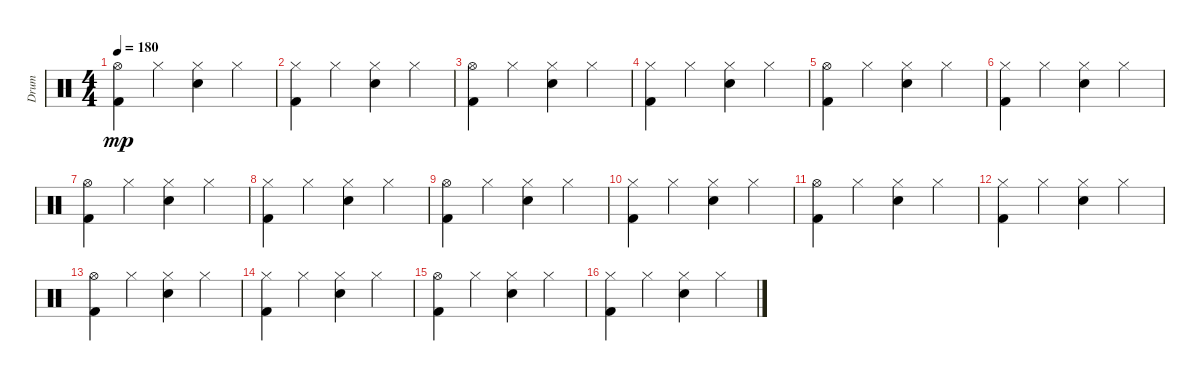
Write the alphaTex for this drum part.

\track ("Drum" "Drum") {instrument percussion}
\staff {score}
\articulation defaults
\ts (4 4)
\tempo 180
\clef neutral
\ks c
("Hi-Hat (open)" "Kick (hit) 2").4{dy mp} "Hi-Hat (closed)".4 ("Hi-Hat (closed)" "Snare (hit) 2").4 "Hi-Hat (closed)".4 |
("Hi-Hat (closed)" "Kick (hit) 2").4 "Hi-Hat (closed)".4 ("Hi-Hat (closed)" "Snare (hit) 2").4 "Hi-Hat (closed)".4 |
("Hi-Hat (open)" "Kick (hit) 2").4 "Hi-Hat (closed)".4 ("Hi-Hat (closed)" "Snare (hit) 2").4 "Hi-Hat (closed)".4 |
("Hi-Hat (closed)" "Kick (hit) 2").4 "Hi-Hat (closed)".4 ("Hi-Hat (closed)" "Snare (hit) 2").4 "Hi-Hat (closed)".4 |
("Hi-Hat (open)" "Kick (hit) 2").4 "Hi-Hat (closed)".4 ("Hi-Hat (closed)" "Snare (hit) 2").4 "Hi-Hat (closed)".4 |
("Hi-Hat (closed)" "Kick (hit) 2").4 "Hi-Hat (closed)".4 ("Hi-Hat (closed)" "Snare (hit) 2").4 "Hi-Hat (closed)".4 |
("Hi-Hat (open)" "Kick (hit) 2").4 "Hi-Hat (closed)".4 ("Hi-Hat (closed)" "Snare (hit) 2").4 "Hi-Hat (closed)".4 |
("Hi-Hat (closed)" "Kick (hit) 2").4 "Hi-Hat (closed)".4 ("Hi-Hat (closed)" "Snare (hit) 2").4 "Hi-Hat (closed)".4 |
("Hi-Hat (open)" "Kick (hit) 2").4 "Hi-Hat (closed)".4 ("Hi-Hat (closed)" "Snare (hit) 2").4 "Hi-Hat (closed)".4 |
("Hi-Hat (closed)" "Kick (hit) 2").4 "Hi-Hat (closed)".4 ("Hi-Hat (closed)" "Snare (hit) 2").4 "Hi-Hat (closed)".4 |
("Hi-Hat (open)" "Kick (hit) 2").4 "Hi-Hat (closed)".4 ("Hi-Hat (closed)" "Snare (hit) 2").4 "Hi-Hat (closed)".4 |
("Hi-Hat (closed)" "Kick (hit) 2").4 "Hi-Hat (closed)".4 ("Hi-Hat (closed)" "Snare (hit) 2").4 "Hi-Hat (closed)".4 |
("Hi-Hat (open)" "Kick (hit) 2").4 "Hi-Hat (closed)".4 ("Hi-Hat (closed)" "Snare (hit) 2").4 "Hi-Hat (closed)".4 |
("Hi-Hat (closed)" "Kick (hit) 2").4 "Hi-Hat (closed)".4 ("Hi-Hat (closed)" "Snare (hit) 2").4 "Hi-Hat (closed)".4 |
("Hi-Hat (open)" "Kick (hit) 2").4 "Hi-Hat (closed)".4 ("Hi-Hat (closed)" "Snare (hit) 2").4 "Hi-Hat (closed)".4 |
("Hi-Hat (closed)" "Kick (hit) 2").4 "Hi-Hat (closed)".4 ("Hi-Hat (closed)" "Snare (hit) 2").4 "Hi-Hat (closed)".4
